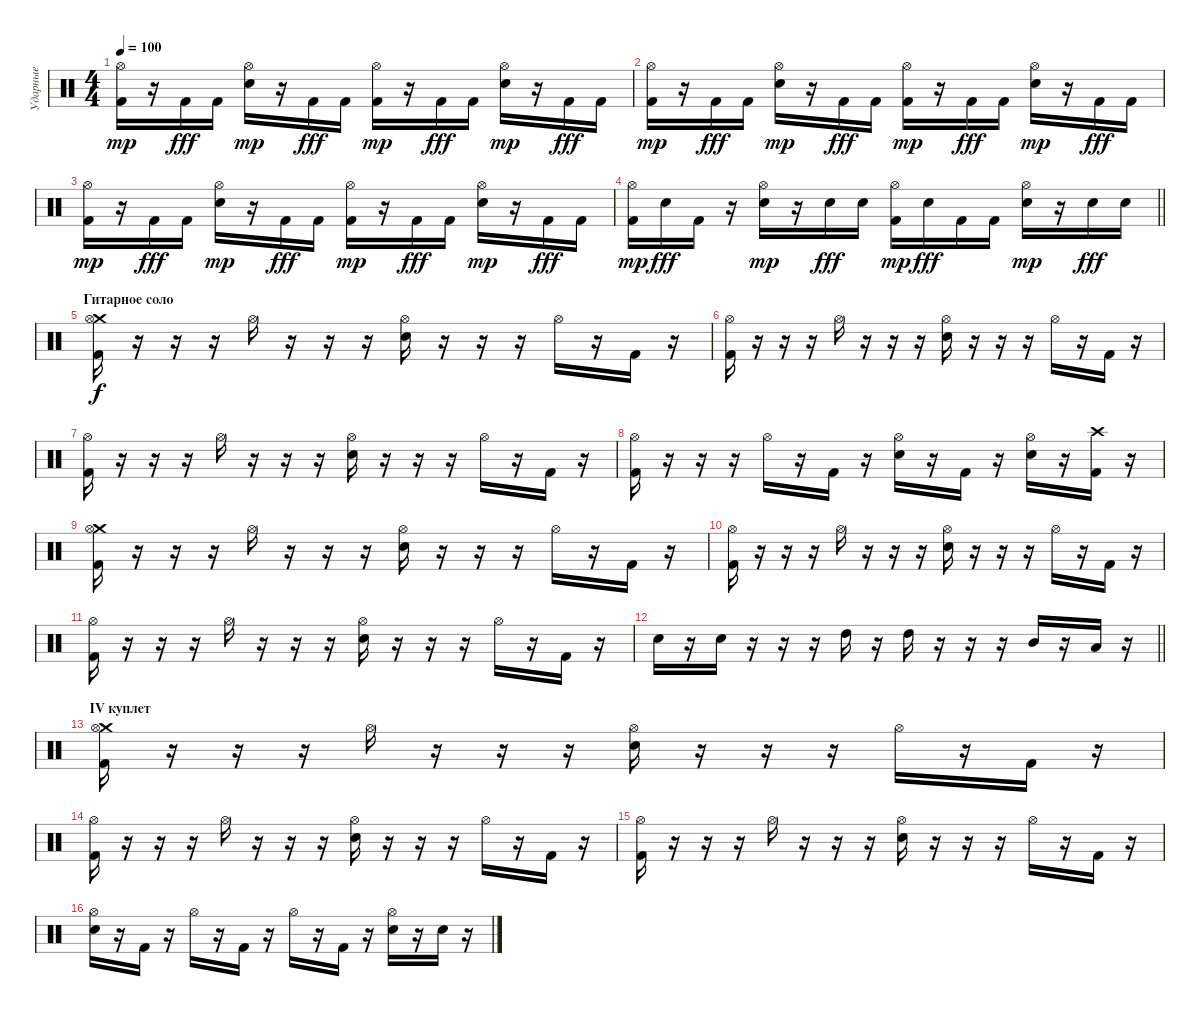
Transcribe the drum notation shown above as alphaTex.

\track ("Ударные" "Ударные") {instrument percussion}
\staff {score}
\articulation defaults
\ts (4 4)
\tempo 100
\clef neutral
\ks aminor
("Kick (hit) 2" "Hi-Hat (open)").16{dy mp} r.16 "Kick (hit) 2".16{dy fff} "Kick (hit) 2".16 ("Electric Snare (hit)" "Hi-Hat (open)").16{dy mp} r.16 "Kick (hit) 2".16{dy fff} "Kick (hit) 2".16 ("Kick (hit) 2" "Hi-Hat (open)").16{dy mp} r.16 "Kick (hit) 2".16{dy fff} "Kick (hit) 2".16 ("Electric Snare (hit)" "Hi-Hat (open)").16{dy mp} r.16 "Kick (hit) 2".16{dy fff} "Kick (hit) 2".16 |
("Kick (hit) 2" "Hi-Hat (open)").16{dy mp} r.16 "Kick (hit) 2".16{dy fff} "Kick (hit) 2".16 ("Electric Snare (hit)" "Hi-Hat (open)").16{dy mp} r.16 "Kick (hit) 2".16{dy fff} "Kick (hit) 2".16 ("Kick (hit) 2" "Hi-Hat (open)").16{dy mp} r.16 "Kick (hit) 2".16{dy fff} "Kick (hit) 2".16 ("Electric Snare (hit)" "Hi-Hat (open)").16{dy mp} r.16 "Kick (hit) 2".16{dy fff} "Kick (hit) 2".16 |
("Kick (hit) 2" "Hi-Hat (open)").16{dy mp} r.16 "Kick (hit) 2".16{dy fff} "Kick (hit) 2".16 ("Electric Snare (hit)" "Hi-Hat (open)").16{dy mp} r.16 "Kick (hit) 2".16{dy fff} "Kick (hit) 2".16 ("Kick (hit) 2" "Hi-Hat (open)").16{dy mp} r.16 "Kick (hit) 2".16{dy fff} "Kick (hit) 2".16 ("Electric Snare (hit)" "Hi-Hat (open)").16{dy mp} r.16 "Kick (hit) 2".16{dy fff} "Kick (hit) 2".16 |
\barLineRight lightlight
("Kick (hit) 2" "Hi-Hat (open)").16{dy mp} "Electric Snare (hit)".16{dy fff} "Kick (hit) 2".16 r.16 ("Electric Snare (hit)" "Hi-Hat (open)").16{dy mp} r.16 "Electric Snare (hit)".16{dy fff} "Electric Snare (hit)".16 ("Kick (hit) 2" "Hi-Hat (open)").16{dy mp} "Electric Snare (hit)".16{dy fff} "Kick (hit) 2".16 "Kick (hit) 2".16 ("Electric Snare (hit)" "Hi-Hat (open)").16{dy mp} r.16 "Electric Snare (hit)".16{dy fff} "Electric Snare (hit)".16 |
\section ("" "Гитарное соло")
("Crash medium (hit)" "Kick (hit) 2" "Hi-Hat (open)").16{dy f} r.16 r.16 r.16 "Hi-Hat (open)".16 r.16 r.16 r.16 ("Hi-Hat (open)" "Electric Snare (hit)").16 r.16 r.16 r.16 "Hi-Hat (open)".16 r.16 "Kick (hit) 2".16 r.16 |
("Kick (hit) 2" "Hi-Hat (open)").16 r.16 r.16 r.16 "Hi-Hat (open)".16 r.16 r.16 r.16 ("Hi-Hat (open)" "Electric Snare (hit)").16 r.16 r.16 r.16 "Hi-Hat (open)".16 r.16 "Kick (hit) 2".16 r.16 |
("Kick (hit) 2" "Hi-Hat (open)").16 r.16 r.16 r.16 "Hi-Hat (open)".16 r.16 r.16 r.16 ("Hi-Hat (open)" "Electric Snare (hit)").16 r.16 r.16 r.16 "Hi-Hat (open)".16 r.16 "Kick (hit) 2".16 r.16 |
("Kick (hit) 2" "Hi-Hat (open)").16 r.16 r.16 r.16 "Hi-Hat (open)".16 r.16 "Kick (hit) 2".16 r.16 ("Hi-Hat (open)" "Electric Snare (hit)").16 r.16 "Kick (hit) 2".16 r.16 ("Hi-Hat (open)" "Electric Snare (hit)").16 r.16 ("Crash high (hit)" "Kick (hit) 2").16 r.16 |
("Crash medium (hit)" "Kick (hit) 2" "Hi-Hat (open)").16 r.16 r.16 r.16 "Hi-Hat (open)".16 r.16 r.16 r.16 ("Hi-Hat (open)" "Electric Snare (hit)").16 r.16 r.16 r.16 "Hi-Hat (open)".16 r.16 "Kick (hit) 2".16 r.16 |
("Kick (hit) 2" "Hi-Hat (open)").16 r.16 r.16 r.16 "Hi-Hat (open)".16 r.16 r.16 r.16 ("Hi-Hat (open)" "Electric Snare (hit)").16 r.16 r.16 r.16 "Hi-Hat (open)".16 r.16 "Kick (hit) 2".16 r.16 |
("Kick (hit) 2" "Hi-Hat (open)").16 r.16 r.16 r.16 "Hi-Hat (open)".16 r.16 r.16 r.16 ("Hi-Hat (open)" "Electric Snare (hit)").16 r.16 r.16 r.16 "Hi-Hat (open)".16 r.16 "Kick (hit) 2".16 r.16 |
\barLineRight lightlight "Electric Snare (hit)".16
r.16 "Electric Snare (hit)".16 r.16 r.16 r.16 "High Tom (hit)".16 r.16 "High Tom (hit)".16 r.16 r.16 r.16 "Mid Tom (hit)".16 r.16 "Low Tom (hit)".16 r.16 |
\section ("" "IV куплет")
("Crash medium (hit)" "Kick (hit) 2" "Hi-Hat (open)").16 r.16 r.16 r.16 "Hi-Hat (open)".16 r.16 r.16 r.16 ("Electric Snare (hit)" "Hi-Hat (open)").16 r.16 r.16 r.16 "Hi-Hat (open)".16 r.16 "Kick (hit) 2".16 r.16 |
("Kick (hit) 2" "Hi-Hat (open)").16 r.16 r.16 r.16 "Hi-Hat (open)".16 r.16 r.16 r.16 ("Electric Snare (hit)" "Hi-Hat (open)").16 r.16 r.16 r.16 "Hi-Hat (open)".16 r.16 "Kick (hit) 2".16 r.16 |
("Kick (hit) 2" "Hi-Hat (open)").16 r.16 r.16 r.16 "Hi-Hat (open)".16 r.16 r.16 r.16 ("Electric Snare (hit)" "Hi-Hat (open)").16 r.16 r.16 r.16 "Hi-Hat (open)".16 r.16 "Kick (hit) 2".16 r.16 |
("Electric Snare (hit)" "Hi-Hat (open)").16 r.16 "Kick (hit) 2".16 r.16 "Hi-Hat (open)".16 r.16 "Kick (hit) 2".16 r.16 "Hi-Hat (open)".16 r.16 "Kick (hit) 2".16 r.16 ("Electric Snare (hit)" "Hi-Hat (open)").16 r.16 "Electric Snare (hit)".16 r.16
